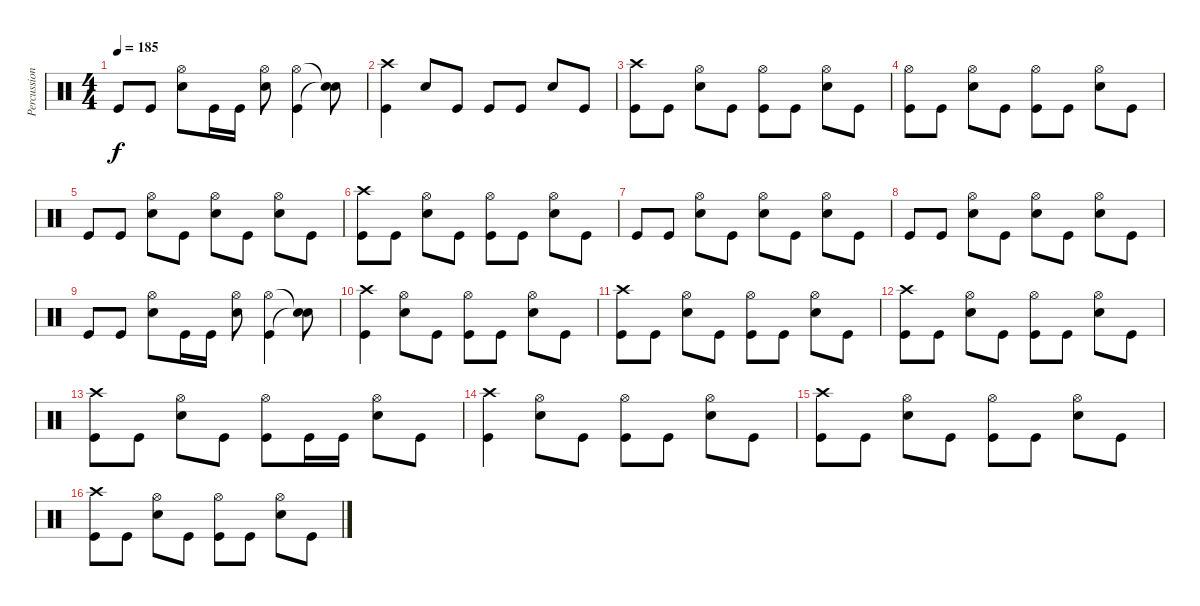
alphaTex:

\track ("Percussions" "Percussion") {instrument percussion}
\staff {score}
\articulation defaults
\ts (4 4)
\tempo 185
\clef neutral
\ks c "Kick (hit)".8{dy f} "Kick (hit)".8
("Hi-Hat (open)" "Snare (hit) 2").8 "Kick (hit)".16 "Kick (hit)".16 ("Hi-Hat (open)" "Snare (hit) 2").8 ("Hi-Hat (open)" "Kick (hit)").4 ("Snare (hit)"{t} "Snare (hit)"{t}).8 |
("Crash high (hit)" "Kick (hit)").4 "Snare (hit) 2".8 "Kick (hit)".8 "Kick (hit)".8 "Kick (hit)".8 "Snare (hit) 2".8 "Kick (hit)".8 |
("Crash high (hit)" "Kick (hit)").8 "Kick (hit)".8 ("Hi-Hat (open)" "Snare (hit) 2").8 "Kick (hit)".8 ("Hi-Hat (open)" "Kick (hit)").8 "Kick (hit)".8 ("Hi-Hat (open)" "Snare (hit) 2").8 "Kick (hit)".8 |
("Hi-Hat (open)" "Kick (hit)").8 "Kick (hit)".8 ("Hi-Hat (open)" "Snare (hit) 2").8 "Kick (hit)".8 ("Hi-Hat (open)" "Kick (hit)").8 "Kick (hit)".8 ("Hi-Hat (open)" "Snare (hit) 2").8 "Kick (hit)".8 |
"Kick (hit)".8 "Kick (hit)".8 ("Hi-Hat (open)" "Snare (hit) 2").8 "Kick (hit)".8 ("Hi-Hat (open)" "Snare (hit) 2").8 "Kick (hit)".8 ("Hi-Hat (open)" "Snare (hit) 2").8 "Kick (hit)".8 |
("Crash high (hit)" "Kick (hit)").8 "Kick (hit)".8 ("Hi-Hat (open)" "Snare (hit) 2").8 "Kick (hit)".8 ("Hi-Hat (open)" "Kick (hit)").8 "Kick (hit)".8 ("Hi-Hat (open)" "Snare (hit) 2").8 "Kick (hit)".8 |
"Kick (hit)".8 "Kick (hit)".8 ("Hi-Hat (open)" "Snare (hit) 2").8 "Kick (hit)".8 ("Hi-Hat (open)" "Snare (hit) 2").8 "Kick (hit)".8 ("Hi-Hat (open)" "Snare (hit) 2").8 "Kick (hit)".8 |
"Kick (hit)".8 "Kick (hit)".8 ("Hi-Hat (open)" "Snare (hit) 2").8 "Kick (hit)".8 ("Hi-Hat (open)" "Snare (hit) 2").8 "Kick (hit)".8 ("Hi-Hat (open)" "Snare (hit) 2").8 "Kick (hit)".8 |
"Kick (hit)".8 "Kick (hit)".8 ("Hi-Hat (open)" "Snare (hit) 2").8 "Kick (hit)".16 "Kick (hit)".16 ("Hi-Hat (open)" "Snare (hit) 2").8 ("Hi-Hat (open)" "Kick (hit)").4 ("Snare (hit)"{t} "Snare (hit)"{t}).8 |
("Crash high (hit)" "Kick (hit)").4 ("Hi-Hat (open)" "Snare (hit) 2").8 "Kick (hit)".8 ("Hi-Hat (open)" "Kick (hit)").8 "Kick (hit)".8 ("Hi-Hat (open)" "Snare (hit) 2").8 "Kick (hit)".8 |
("Crash high (hit)" "Kick (hit)").8 "Kick (hit)".8 ("Hi-Hat (open)" "Snare (hit) 2").8 "Kick (hit)".8 ("Hi-Hat (open)" "Kick (hit)").8 "Kick (hit)".8 ("Hi-Hat (open)" "Snare (hit) 2").8 "Kick (hit)".8 |
("Crash high (hit)" "Kick (hit)").8 "Kick (hit)".8 ("Hi-Hat (open)" "Snare (hit) 2").8 "Kick (hit)".8 ("Hi-Hat (open)" "Kick (hit)").8 "Kick (hit)".8 ("Hi-Hat (open)" "Snare (hit) 2").8 "Kick (hit)".8 |
("Crash high (hit)" "Kick (hit)").8 "Kick (hit)".8 ("Hi-Hat (open)" "Snare (hit) 2").8 "Kick (hit)".8 ("Hi-Hat (open)" "Kick (hit)").8 "Kick (hit)".16 "Kick (hit)".16 ("Hi-Hat (open)" "Snare (hit) 2").8 "Kick (hit)".8 |
("Crash high (hit)" "Kick (hit)").4 ("Hi-Hat (open)" "Snare (hit) 2").8 "Kick (hit)".8 ("Hi-Hat (open)" "Kick (hit)").8 "Kick (hit)".8 ("Hi-Hat (open)" "Snare (hit) 2").8 "Kick (hit)".8 |
("Crash high (hit)" "Kick (hit)").8 "Kick (hit)".8 ("Hi-Hat (open)" "Snare (hit) 2").8 "Kick (hit)".8 ("Hi-Hat (open)" "Kick (hit)").8 "Kick (hit)".8 ("Hi-Hat (open)" "Snare (hit) 2").8 "Kick (hit)".8 |
("Crash high (hit)" "Kick (hit)").8 "Kick (hit)".8 ("Hi-Hat (open)" "Snare (hit) 2").8 "Kick (hit)".8 ("Hi-Hat (open)" "Kick (hit)").8 "Kick (hit)".8 ("Hi-Hat (open)" "Snare (hit) 2").8 "Kick (hit)".8
